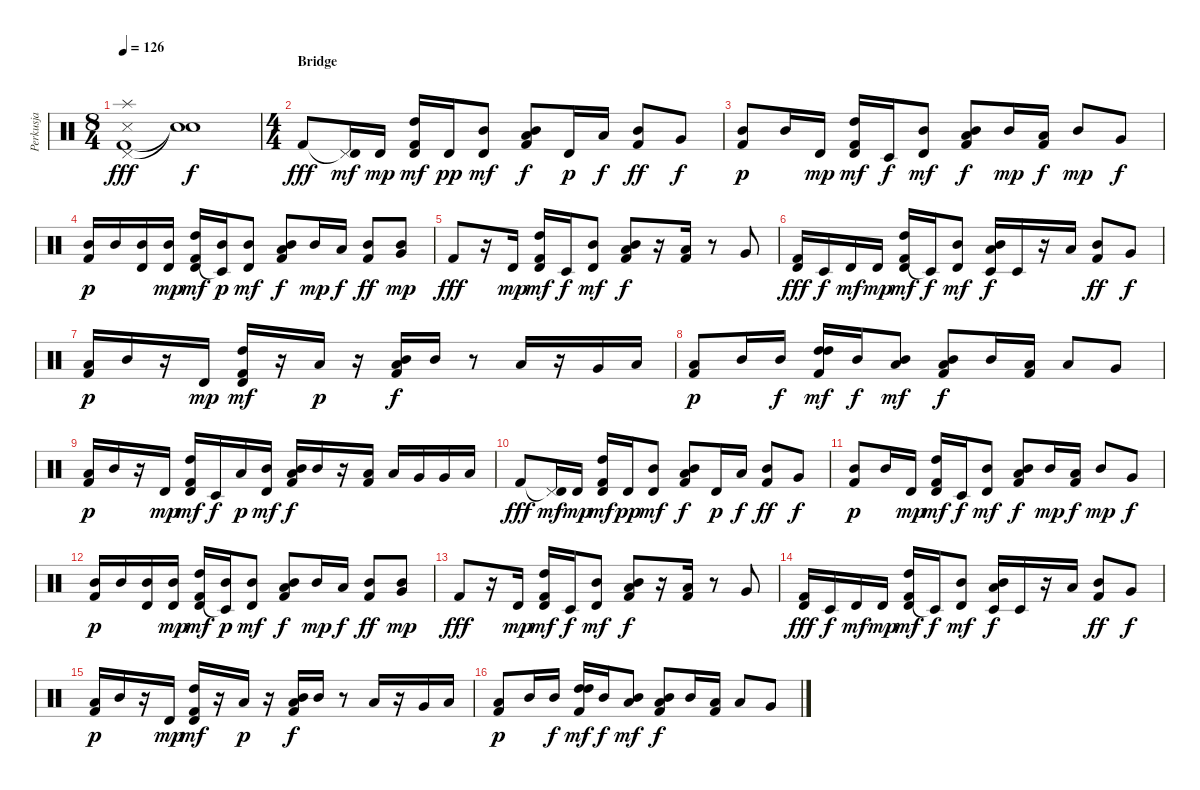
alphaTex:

\track ("Perkusja" "Perkusja") {instrument percussion}
\staff {score}
\articulation defaults
\ts (8 4)
\tempo 126
\clef neutral
\ks c
("Pedal Hi-Hat (hit)" "Kick (hit) 2" "Splash (hit)" "Snare (side stick) 3").1{dy fff} ("Snare (hit)"{t} "Snare (hit)"{t}).1{dy f} |
\ts (4 4)
\section ("" "Bridge")
"Kick (hit) 2".8{dy fff} ("Pedal Hi-Hat (hit)"{t} "Timbale high (hit)").16{dy mf} "Timbale high (hit)".16{dy mp} ("Kick (hit) 2" "Timbale high (hit)" "High Tom (hit)").16{dy mf} "Timbale high (hit)".16{dy pp} ("Timbale high (hit)" "Mid Tom (hit)").8{dy mf} ("Kick (hit) 2" "Low Tom (hit)" "Mid Tom (hit)").8{dy f} "Timbale high (hit)".16{dy p} "Low Tom (hit)".16{dy f} ("Kick (hit) 2" "Mid Tom (hit)").8{dy ff} "Very Low Tom (hit)".8{dy f} |
("Kick (hit) 2" "Mid Tom (hit)").8{dy p} "Mid Tom (hit)".16 "Timbale high (hit)".16{dy mp} ("Kick (hit) 2" "Timbale high (hit)" "High Tom (hit)").16{dy mf} "Timbale low (hit)".16{dy f} ("Timbale high (hit)" "Mid Tom (hit)").8{dy mf} ("Kick (hit) 2" "Low Tom (hit)" "Mid Tom (hit)").8{dy f} "Mid Tom (hit)".16{dy mp} ("Kick (hit) 2" "Low Tom (hit)").16{dy f} "Mid Tom (hit)".8{dy mp} "Very Low Tom (hit)".8{dy f} |
("Kick (hit) 2" "Mid Tom (hit)").16{dy p} "Mid Tom (hit)".16 ("Timbale high (hit)" "Mid Tom (hit)").16 ("Timbale high (hit)" "Mid Tom (hit)").16{dy mp} ("Kick (hit) 2" "Timbale high (hit)" "High Tom (hit)").16{dy mf} ("Timbale low (hit)"{t} "Mid Tom (hit)").16{dy p} ("Timbale high (hit)" "Mid Tom (hit)").8{dy mf} ("Kick (hit) 2" "Low Tom (hit)" "Mid Tom (hit)").8{dy f} "Mid Tom (hit)".16{dy mp} "Low Tom (hit)".16{dy f} ("Kick (hit) 2" "Mid Tom (hit)").8{dy ff} ("Very Low Tom (hit)" "Mid Tom (hit)").8{dy mp} |
"Kick (hit) 2".8{dy fff} r.16 "Timbale high (hit)".16{dy mp} ("Kick (hit) 2" "Timbale high (hit)" "High Tom (hit)").16{dy mf} "Timbale low (hit)".16{dy f} ("Timbale high (hit)" "Mid Tom (hit)").8{dy mf} ("Kick (hit) 2" "Low Tom (hit)" "Mid Tom (hit)").8{dy f} r.16 ("Kick (hit) 2" "Low Tom (hit)").16 r.8 "Very Low Tom (hit)".8 |
("Kick (hit) 2" "Timbale high (hit)").16{dy fff} "Timbale low (hit)".16{dy f} "Timbale high (hit)".16{dy mf} "Timbale high (hit)".16{dy mp} ("Kick (hit) 2" "Timbale high (hit)" "High Tom (hit)").16{dy mf} "Timbale low (hit)"{t}.16{dy f} ("Timbale high (hit)" "Mid Tom (hit)").8{dy mf} ("Timbale low (hit)" "Low Tom (hit)" "Mid Tom (hit)").16{dy f} "Timbale low (hit)".16 r.16 "Low Tom (hit)".16 ("Kick (hit) 2" "Mid Tom (hit)").8{dy ff} "Very Low Tom (hit)".8{dy f} |
("Kick (hit) 2" "Low Tom (hit)").16{dy p} "Mid Tom (hit)".16 r.16 "Timbale high (hit)".16{dy mp} ("Kick (hit) 2" "Timbale high (hit)" "High Tom (hit)").16{dy mf} r.16 "Low Tom (hit)".16{dy p} r.16 ("Kick (hit) 2" "Low Tom (hit)" "Mid Tom (hit)").16{dy f} "Mid Tom (hit)".16 r.8 "Low Tom (hit)".16 r.16 "Very Low Tom (hit)".16 "Low Floor Tom (hit)".16 |
("Kick (hit) 2" "Low Tom (hit)").8{dy p} "Mid Tom (hit)".16 "Mid Tom (hit)".16{dy f} ("Kick (hit) 2" "High Tom (hit)" "High Tom (hit)").16{dy mf} "Mid Tom (hit)".16{dy f} ("Low Tom (hit)" "Mid Tom (hit)").8{dy mf} ("Kick (hit) 2" "Low Tom (hit)" "Mid Tom (hit)").8{dy f} "Mid Tom (hit)".16 ("Kick (hit) 2" "Low Tom (hit)").16 "Low Tom (hit)".8 "Very Low Tom (hit)".8 |
("Kick (hit) 2" "Low Tom (hit)").16{dy p} "Mid Tom (hit)".16 r.16 "Timbale high (hit)".16{dy mp} ("Kick (hit) 2" "Timbale high (hit)" "High Tom (hit)").16{dy mf} "Timbale low (hit)".16{dy f} "Low Tom (hit)".16{dy p} ("Timbale high (hit)" "Mid Tom (hit)").16{dy mf} ("Kick (hit) 2" "Low Tom (hit)" "Mid Tom (hit)").16{dy f} "Mid Tom (hit)".16 r.16 ("Kick (hit) 2" "Low Tom (hit)").16 "Low Tom (hit)".16 "Very Low Tom (hit)".16 "Very Low Tom (hit)".16 "Low Floor Tom (hit)".16 |
"Kick (hit) 2".8{dy fff} ("Pedal Hi-Hat (hit)"{t} "Timbale high (hit)").16{dy mf} "Timbale high (hit)".16{dy mp} ("Kick (hit) 2" "Timbale high (hit)" "High Tom (hit)").16{dy mf} "Timbale high (hit)".16{dy pp} ("Timbale high (hit)" "Mid Tom (hit)").8{dy mf} ("Kick (hit) 2" "Low Tom (hit)" "Mid Tom (hit)").8{dy f} "Timbale high (hit)".16{dy p} "Low Tom (hit)".16{dy f} ("Kick (hit) 2" "Mid Tom (hit)").8{dy ff} "Very Low Tom (hit)".8{dy f} |
("Kick (hit) 2" "Mid Tom (hit)").8{dy p} "Mid Tom (hit)".16 "Timbale high (hit)".16{dy mp} ("Kick (hit) 2" "Timbale high (hit)" "High Tom (hit)").16{dy mf} "Timbale low (hit)".16{dy f} ("Timbale high (hit)" "Mid Tom (hit)").8{dy mf} ("Kick (hit) 2" "Low Tom (hit)" "Mid Tom (hit)").8{dy f} "Mid Tom (hit)".16{dy mp} ("Kick (hit) 2" "Low Tom (hit)").16{dy f} "Mid Tom (hit)".8{dy mp} "Very Low Tom (hit)".8{dy f} |
("Kick (hit) 2" "Mid Tom (hit)").16{dy p} "Mid Tom (hit)".16 ("Timbale high (hit)" "Mid Tom (hit)").16 ("Timbale high (hit)" "Mid Tom (hit)").16{dy mp} ("Kick (hit) 2" "Timbale high (hit)" "High Tom (hit)").16{dy mf} ("Timbale low (hit)"{t} "Mid Tom (hit)").16{dy p} ("Timbale high (hit)" "Mid Tom (hit)").8{dy mf} ("Kick (hit) 2" "Low Tom (hit)" "Mid Tom (hit)").8{dy f} "Mid Tom (hit)".16{dy mp} "Low Tom (hit)".16{dy f} ("Kick (hit) 2" "Mid Tom (hit)").8{dy ff} ("Very Low Tom (hit)" "Mid Tom (hit)").8{dy mp} |
"Kick (hit) 2".8{dy fff} r.16 "Timbale high (hit)".16{dy mp} ("Kick (hit) 2" "Timbale high (hit)" "High Tom (hit)").16{dy mf} "Timbale low (hit)".16{dy f} ("Timbale high (hit)" "Mid Tom (hit)").8{dy mf} ("Kick (hit) 2" "Low Tom (hit)" "Mid Tom (hit)").8{dy f} r.16 ("Kick (hit) 2" "Low Tom (hit)").16 r.8 "Very Low Tom (hit)".8 |
("Kick (hit) 2" "Timbale high (hit)").16{dy fff} "Timbale low (hit)".16{dy f} "Timbale high (hit)".16{dy mf} "Timbale high (hit)".16{dy mp} ("Kick (hit) 2" "Timbale high (hit)" "High Tom (hit)").16{dy mf} "Timbale low (hit)"{t}.16{dy f} ("Timbale high (hit)" "Mid Tom (hit)").8{dy mf} ("Timbale low (hit)" "Low Tom (hit)" "Mid Tom (hit)").16{dy f} "Timbale low (hit)".16 r.16 "Low Tom (hit)".16 ("Kick (hit) 2" "Mid Tom (hit)").8{dy ff} "Very Low Tom (hit)".8{dy f} |
("Kick (hit) 2" "Low Tom (hit)").16{dy p} "Mid Tom (hit)".16 r.16 "Timbale high (hit)".16{dy mp} ("Kick (hit) 2" "Timbale high (hit)" "High Tom (hit)").16{dy mf} r.16 "Low Tom (hit)".16{dy p} r.16 ("Kick (hit) 2" "Low Tom (hit)" "Mid Tom (hit)").16{dy f} "Mid Tom (hit)".16 r.8 "Low Tom (hit)".16 r.16 "Very Low Tom (hit)".16 "Low Floor Tom (hit)".16 |
("Kick (hit) 2" "Low Tom (hit)").8{dy p} "Mid Tom (hit)".16 "Mid Tom (hit)".16{dy f} ("Kick (hit) 2" "High Tom (hit)" "High Tom (hit)").16{dy mf} "Mid Tom (hit)".16{dy f} ("Low Tom (hit)" "Mid Tom (hit)").8{dy mf} ("Kick (hit) 2" "Low Tom (hit)" "Mid Tom (hit)").8{dy f} "Mid Tom (hit)".16 ("Kick (hit) 2" "Low Tom (hit)").16 "Low Tom (hit)".8 "Very Low Tom (hit)".8
